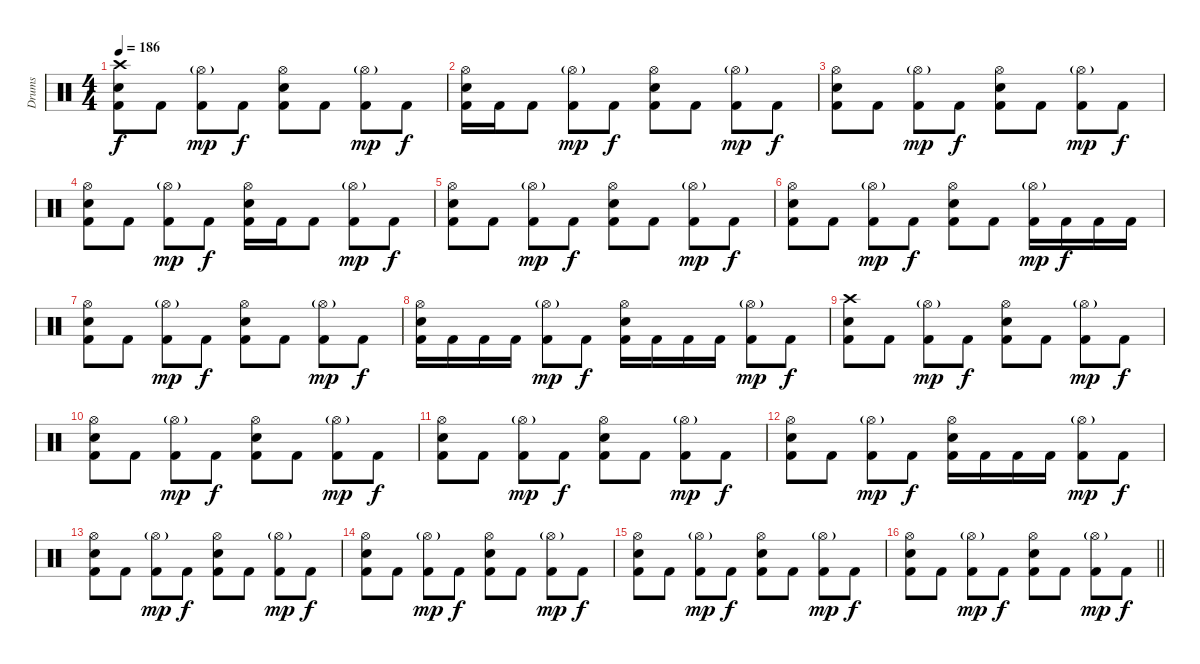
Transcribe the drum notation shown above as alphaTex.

\track ("Drums" "Drums") {instrument percussion}
\staff {score}
\articulation defaults
\ts (4 4)
\section ("" "")
\tempo 186
\clef neutral
\ks c
("Crash high (hit)" "Electric Snare (hit)" "Kick (hit) 2").8{dy f} "Kick (hit) 2".8 ("Hi-Hat (open)"{g} "Kick (hit) 2").8{dy mp} "Kick (hit) 2".8{dy f} ("Hi-Hat (open)" "Electric Snare (hit)" "Kick (hit) 2").8 "Kick (hit) 2".8 ("Hi-Hat (open)"{g} "Kick (hit) 2").8{dy mp} "Kick (hit) 2".8{dy f} |
("Hi-Hat (open)" "Electric Snare (hit)" "Kick (hit) 2").16 "Kick (hit) 2".16 "Kick (hit) 2".8 ("Hi-Hat (open)"{g} "Kick (hit) 2").8{dy mp} "Kick (hit) 2".8{dy f} ("Hi-Hat (open)" "Electric Snare (hit)" "Kick (hit) 2").8 "Kick (hit) 2".8 ("Hi-Hat (open)"{g} "Kick (hit) 2").8{dy mp} "Kick (hit) 2".8{dy f} |
("Hi-Hat (open)" "Electric Snare (hit)" "Kick (hit) 2").8 "Kick (hit) 2".8 ("Hi-Hat (open)"{g} "Kick (hit) 2").8{dy mp} "Kick (hit) 2".8{dy f} ("Hi-Hat (open)" "Electric Snare (hit)" "Kick (hit) 2").8 "Kick (hit) 2".8 ("Hi-Hat (open)"{g} "Kick (hit) 2").8{dy mp} "Kick (hit) 2".8{dy f} |
("Hi-Hat (open)" "Electric Snare (hit)" "Kick (hit) 2").8 "Kick (hit) 2".8 ("Hi-Hat (open)"{g} "Kick (hit) 2").8{dy mp} "Kick (hit) 2".8{dy f} ("Hi-Hat (open)" "Electric Snare (hit)" "Kick (hit) 2").16 "Kick (hit) 2".16 "Kick (hit) 2".8 ("Hi-Hat (open)"{g} "Kick (hit) 2").8{dy mp} "Kick (hit) 2".8{dy f} |
("Hi-Hat (open)" "Electric Snare (hit)" "Kick (hit) 2").8 "Kick (hit) 2".8 ("Hi-Hat (open)"{g} "Kick (hit) 2").8{dy mp} "Kick (hit) 2".8{dy f} ("Hi-Hat (open)" "Electric Snare (hit)" "Kick (hit) 2").8 "Kick (hit) 2".8 ("Hi-Hat (open)"{g} "Kick (hit) 2").8{dy mp} "Kick (hit) 2".8{dy f} |
("Hi-Hat (open)" "Electric Snare (hit)" "Kick (hit) 2").8 "Kick (hit) 2".8 ("Hi-Hat (open)"{g} "Kick (hit) 2").8{dy mp} "Kick (hit) 2".8{dy f} ("Hi-Hat (open)" "Electric Snare (hit)" "Kick (hit) 2").8 "Kick (hit) 2".8 ("Hi-Hat (open)"{g} "Kick (hit) 2").16{dy mp} "Kick (hit) 2".16{dy f} "Kick (hit) 2".16 "Kick (hit) 2".16 |
("Hi-Hat (open)" "Electric Snare (hit)" "Kick (hit) 2").8 "Kick (hit) 2".8 ("Hi-Hat (open)"{g} "Kick (hit) 2").8{dy mp} "Kick (hit) 2".8{dy f} ("Hi-Hat (open)" "Electric Snare (hit)" "Kick (hit) 2").8 "Kick (hit) 2".8 ("Hi-Hat (open)"{g} "Kick (hit) 2").8{dy mp} "Kick (hit) 2".8{dy f} |
("Hi-Hat (open)" "Electric Snare (hit)" "Kick (hit) 2").16 "Kick (hit) 2".16 "Kick (hit) 2".16 "Kick (hit) 2".16 ("Hi-Hat (open)"{g} "Kick (hit) 2").8{dy mp} "Kick (hit) 2".8{dy f} ("Hi-Hat (open)" "Electric Snare (hit)" "Kick (hit) 2").16 "Kick (hit) 2".16 "Kick (hit) 2".16 "Kick (hit) 2".16 ("Hi-Hat (open)"{g} "Kick (hit) 2").8{dy mp} "Kick (hit) 2".8{dy f} |
("Crash high (hit)" "Electric Snare (hit)" "Kick (hit) 2").8 "Kick (hit) 2".8 ("Hi-Hat (open)"{g} "Kick (hit) 2").8{dy mp} "Kick (hit) 2".8{dy f} ("Hi-Hat (open)" "Electric Snare (hit)" "Kick (hit) 2").8 "Kick (hit) 2".8 ("Hi-Hat (open)"{g} "Kick (hit) 2").8{dy mp} "Kick (hit) 2".8{dy f} |
("Hi-Hat (open)" "Electric Snare (hit)" "Kick (hit) 2").8 "Kick (hit) 2".8 ("Hi-Hat (open)"{g} "Kick (hit) 2").8{dy mp} "Kick (hit) 2".8{dy f} ("Hi-Hat (open)" "Electric Snare (hit)" "Kick (hit) 2").8 "Kick (hit) 2".8 ("Hi-Hat (open)"{g} "Kick (hit) 2").8{dy mp} "Kick (hit) 2".8{dy f} |
("Hi-Hat (open)" "Electric Snare (hit)" "Kick (hit) 2").8 "Kick (hit) 2".8 ("Hi-Hat (open)"{g} "Kick (hit) 2").8{dy mp} "Kick (hit) 2".8{dy f} ("Hi-Hat (open)" "Electric Snare (hit)" "Kick (hit) 2").8 "Kick (hit) 2".8 ("Hi-Hat (open)"{g} "Kick (hit) 2").8{dy mp} "Kick (hit) 2".8{dy f} |
("Hi-Hat (open)" "Electric Snare (hit)" "Kick (hit) 2").8 "Kick (hit) 2".8 ("Hi-Hat (open)"{g} "Kick (hit) 2").8{dy mp} "Kick (hit) 2".8{dy f} ("Hi-Hat (open)" "Electric Snare (hit)" "Kick (hit) 2").16 "Kick (hit) 2".16 "Kick (hit) 2".16 "Kick (hit) 2".16 ("Hi-Hat (open)"{g} "Kick (hit) 2").8{dy mp} "Kick (hit) 2".8{dy f} |
("Hi-Hat (open)" "Electric Snare (hit)" "Kick (hit) 2").8 "Kick (hit) 2".8 ("Hi-Hat (open)"{g} "Kick (hit) 2").8{dy mp} "Kick (hit) 2".8{dy f} ("Hi-Hat (open)" "Electric Snare (hit)" "Kick (hit) 2").8 "Kick (hit) 2".8 ("Hi-Hat (open)"{g} "Kick (hit) 2").8{dy mp} "Kick (hit) 2".8{dy f} |
("Hi-Hat (open)" "Electric Snare (hit)" "Kick (hit) 2").8 "Kick (hit) 2".8 ("Hi-Hat (open)"{g} "Kick (hit) 2").8{dy mp} "Kick (hit) 2".8{dy f} ("Hi-Hat (open)" "Electric Snare (hit)" "Kick (hit) 2").8 "Kick (hit) 2".8 ("Hi-Hat (open)"{g} "Kick (hit) 2").8{dy mp} "Kick (hit) 2".8{dy f} |
("Hi-Hat (open)" "Electric Snare (hit)" "Kick (hit) 2").8 "Kick (hit) 2".8 ("Hi-Hat (open)"{g} "Kick (hit) 2").8{dy mp} "Kick (hit) 2".8{dy f} ("Hi-Hat (open)" "Electric Snare (hit)" "Kick (hit) 2").8 "Kick (hit) 2".8 ("Hi-Hat (open)"{g} "Kick (hit) 2").8{dy mp} "Kick (hit) 2".8{dy f} |
\barLineRight lightlight
("Hi-Hat (open)" "Electric Snare (hit)" "Kick (hit) 2").8 "Kick (hit) 2".8 ("Hi-Hat (open)"{g} "Kick (hit) 2").8{dy mp} "Kick (hit) 2".8{dy f} ("Hi-Hat (open)" "Electric Snare (hit)" "Kick (hit) 2").8 "Kick (hit) 2".8 ("Hi-Hat (open)"{g} "Kick (hit) 2").8{dy mp} "Kick (hit) 2".8{dy f}
